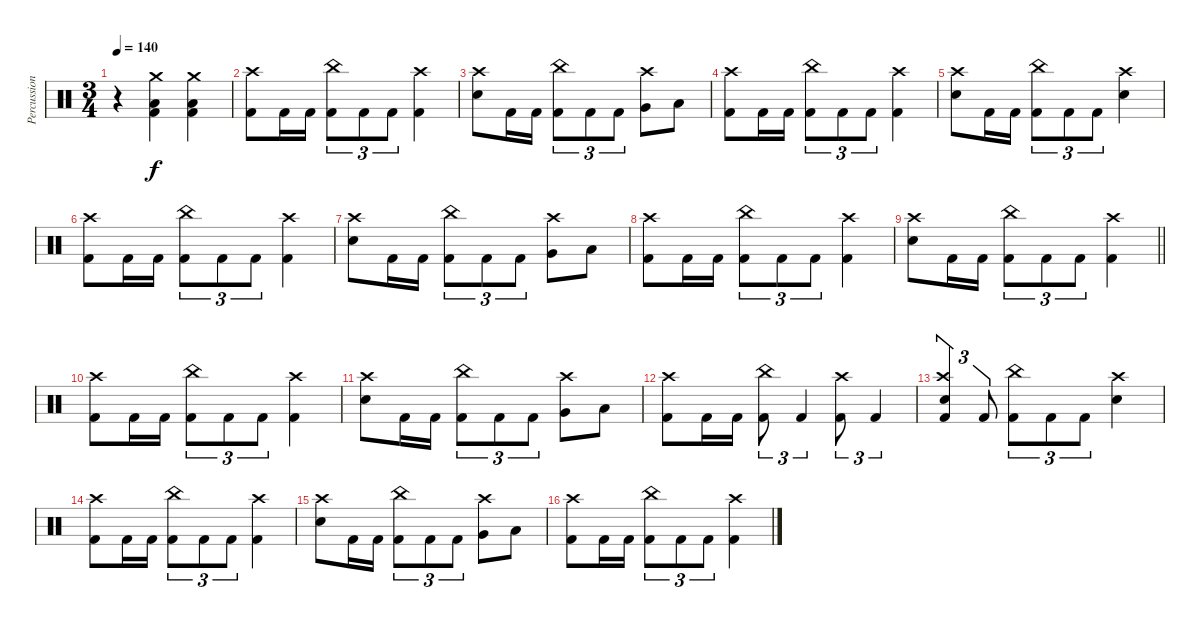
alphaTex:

\track ("Percussions" "Percussion") {instrument percussion}
\staff {score}
\articulation defaults
\ts (3 4)
\tempo 140
\clef neutral
\ks c
r.4{dy f} ("Crash medium (hit)" "Low Floor Tom (hit)" "Kick (hit) 2").4 ("Crash medium (hit)" "Low Floor Tom (hit)" "Kick (hit) 2").4 |
("Crash high (hit)" "Kick (hit) 2").8 "Kick (hit) 2".16 "Kick (hit) 2".16 ("China (hit)" "Kick (hit) 2").8{tu (3 2)} "Kick (hit) 2".8{tu (3 2)} "Kick (hit) 2".8{tu (3 2)} ("Crash high (hit)" "Kick (hit) 2").4 |
("Crash high (hit)" "Electric Snare (hit)").8 "Kick (hit) 2".16 "Kick (hit) 2".16 ("China (hit)" "Kick (hit) 2").8{tu (3 2)} "Kick (hit) 2".8{tu (3 2)} "Kick (hit) 2".8{tu (3 2)} ("Crash high (hit)" "Very Low Tom (hit)").8 "Low Floor Tom (hit)".8 |
("Crash high (hit)" "Kick (hit) 2").8 "Kick (hit) 2".16 "Kick (hit) 2".16 ("China (hit)" "Kick (hit) 2").8{tu (3 2)} "Kick (hit) 2".8{tu (3 2)} "Kick (hit) 2".8{tu (3 2)} ("Crash high (hit)" "Kick (hit) 2").4 |
("Crash high (hit)" "Electric Snare (hit)").8 "Kick (hit) 2".16 "Kick (hit) 2".16 ("China (hit)" "Kick (hit) 2").8{tu (3 2)} "Kick (hit) 2".8{tu (3 2)} "Kick (hit) 2".8{tu (3 2)} ("Crash high (hit)" "Electric Snare (hit)").4 |
("Crash high (hit)" "Kick (hit) 2").8 "Kick (hit) 2".16 "Kick (hit) 2".16 ("China (hit)" "Kick (hit) 2").8{tu (3 2)} "Kick (hit) 2".8{tu (3 2)} "Kick (hit) 2".8{tu (3 2)} ("Crash high (hit)" "Kick (hit) 2").4 |
("Crash high (hit)" "Electric Snare (hit)").8 "Kick (hit) 2".16 "Kick (hit) 2".16 ("China (hit)" "Kick (hit) 2").8{tu (3 2)} "Kick (hit) 2".8{tu (3 2)} "Kick (hit) 2".8{tu (3 2)} ("Crash high (hit)" "Very Low Tom (hit)").8 "Low Floor Tom (hit)".8 |
("Crash high (hit)" "Kick (hit) 2").8 "Kick (hit) 2".16 "Kick (hit) 2".16 ("China (hit)" "Kick (hit) 2").8{tu (3 2)} "Kick (hit) 2".8{tu (3 2)} "Kick (hit) 2".8{tu (3 2)} ("Crash high (hit)" "Kick (hit) 2").4 |
\barLineRight lightlight
("Crash high (hit)" "Electric Snare (hit)").8 "Kick (hit) 2".16 "Kick (hit) 2".16 ("China (hit)" "Kick (hit) 2").8{tu (3 2)} "Kick (hit) 2".8{tu (3 2)} "Kick (hit) 2".8{tu (3 2)} ("Crash high (hit)" "Kick (hit) 2").4 |
\section ("" "")
("Crash high (hit)" "Kick (hit) 2").8 "Kick (hit) 2".16 "Kick (hit) 2".16 ("China (hit)" "Kick (hit) 2").8{tu (3 2)} "Kick (hit) 2".8{tu (3 2)} "Kick (hit) 2".8{tu (3 2)} ("Crash high (hit)" "Kick (hit) 2").4 |
("Crash high (hit)" "Electric Snare (hit)").8 "Kick (hit) 2".16 "Kick (hit) 2".16 ("China (hit)" "Kick (hit) 2").8{tu (3 2)} "Kick (hit) 2".8{tu (3 2)} "Kick (hit) 2".8{tu (3 2)} ("Crash high (hit)" "Very Low Tom (hit)").8 "Low Floor Tom (hit)".8 |
("Crash high (hit)" "Kick (hit) 2").8 "Kick (hit) 2".16 "Kick (hit) 2".16 ("China (hit)" "Kick (hit) 2").8{tu (3 2)} "Kick (hit) 2".4{tu (3 2)} ("Crash high (hit)" "Kick (hit) 2").8{tu (3 2)} "Kick (hit) 2".4{tu (3 2)} |
("Crash high (hit)" "Electric Snare (hit)" "Kick (hit) 2").4{tu (3 2)} "Kick (hit) 2".8{tu (3 2)} ("China (hit)" "Kick (hit) 2").8{tu (3 2)} "Kick (hit) 2".8{tu (3 2)} "Kick (hit) 2".8{tu (3 2)} ("Crash high (hit)" "Electric Snare (hit)").4 |
("Crash high (hit)" "Kick (hit) 2").8 "Kick (hit) 2".16 "Kick (hit) 2".16 ("China (hit)" "Kick (hit) 2").8{tu (3 2)} "Kick (hit) 2".8{tu (3 2)} "Kick (hit) 2".8{tu (3 2)} ("Crash high (hit)" "Kick (hit) 2").4 |
("Crash high (hit)" "Electric Snare (hit)").8 "Kick (hit) 2".16 "Kick (hit) 2".16 ("China (hit)" "Kick (hit) 2").8{tu (3 2)} "Kick (hit) 2".8{tu (3 2)} "Kick (hit) 2".8{tu (3 2)} ("Crash high (hit)" "Very Low Tom (hit)").8 "Low Floor Tom (hit)".8 |
("Crash high (hit)" "Kick (hit) 2").8 "Kick (hit) 2".16 "Kick (hit) 2".16 ("China (hit)" "Kick (hit) 2").8{tu (3 2)} "Kick (hit) 2".8{tu (3 2)} "Kick (hit) 2".8{tu (3 2)} ("Crash high (hit)" "Kick (hit) 2").4
